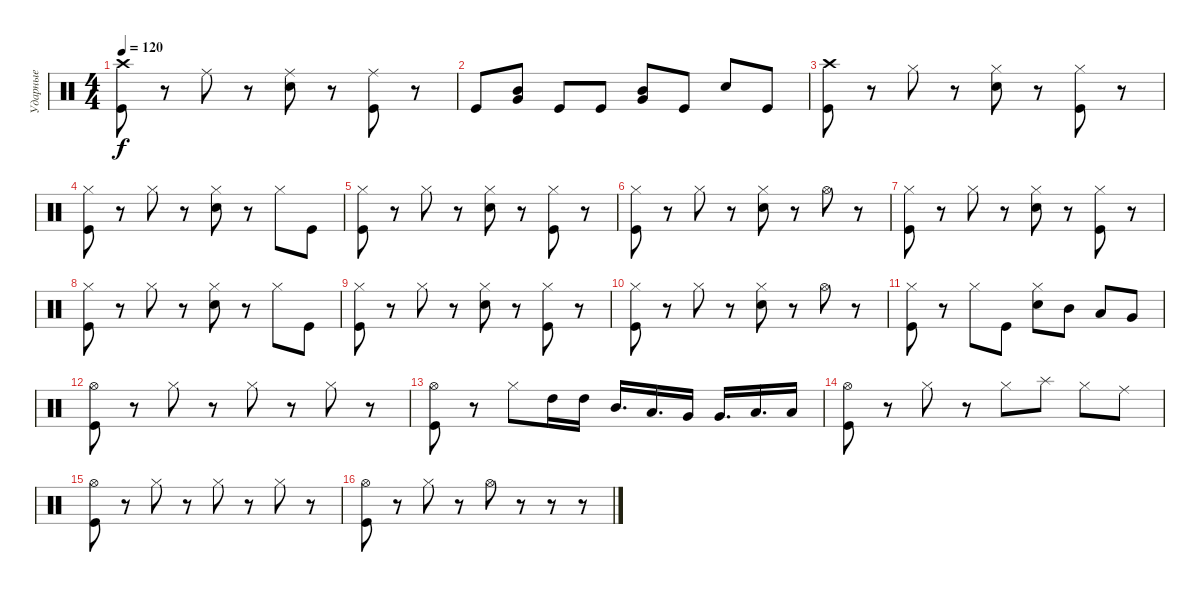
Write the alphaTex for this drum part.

\track ("Ударные" "Ударные") {instrument percussion}
\staff {score}
\articulation defaults
\ts (4 4)
\tempo 120
\clef neutral
\ks c
("Crash high (hit)" "Kick (hit)").8{dy f} r.8 "Ride (middle)".8 r.8 ("Ride (middle)" "Snare (hit) 2").8 r.8 ("Ride (middle)" "Kick (hit)").8 r.8 |
"Kick (hit)".8 ("Mid Tom (hit)" "Very Low Tom (hit)").8 "Kick (hit)".8 "Kick (hit)".8 ("Mid Tom (hit)" "Very Low Tom (hit)").8 "Kick (hit)".8 "Snare (hit) 2".8 "Kick (hit)".8 |
("Crash high (hit)" "Kick (hit)").8 r.8 "Hi-Hat (closed)".8 r.8 ("Hi-Hat (closed)" "Snare (hit) 2").8 r.8 ("Hi-Hat (closed)" "Kick (hit)").8 r.8 |
("Hi-Hat (closed)" "Kick (hit)").8 r.8 "Hi-Hat (closed)".8 r.8 ("Hi-Hat (closed)" "Snare (hit) 2").8 r.8 "Hi-Hat (closed)".8 "Kick (hit)".8 |
("Hi-Hat (closed)" "Kick (hit)").8 r.8 "Hi-Hat (closed)".8 r.8 ("Hi-Hat (closed)" "Snare (hit) 2").8 r.8 ("Hi-Hat (closed)" "Kick (hit)").8 r.8 |
("Hi-Hat (closed)" "Kick (hit)").8 r.8 "Hi-Hat (closed)".8 r.8 ("Hi-Hat (closed)" "Snare (hit) 2").8 r.8 "Hi-Hat (open)".8 r.8 |
("Hi-Hat (closed)" "Kick (hit)").8 r.8 "Hi-Hat (closed)".8 r.8 ("Hi-Hat (closed)" "Snare (hit) 2").8 r.8 ("Hi-Hat (closed)" "Kick (hit)").8 r.8 |
("Hi-Hat (closed)" "Kick (hit)").8 r.8 "Hi-Hat (closed)".8 r.8 ("Hi-Hat (closed)" "Snare (hit) 2").8 r.8 "Hi-Hat (closed)".8 "Kick (hit)".8 |
("Hi-Hat (closed)" "Kick (hit)").8 r.8 "Hi-Hat (closed)".8 r.8 ("Hi-Hat (closed)" "Snare (hit) 2").8 r.8 ("Hi-Hat (closed)" "Kick (hit)").8 r.8 |
("Hi-Hat (closed)" "Kick (hit)").8 r.8 "Hi-Hat (closed)".8 r.8 ("Hi-Hat (closed)" "Snare (hit) 2").8 r.8 "Hi-Hat (open)".8 r.8 |
("Hi-Hat (closed)" "Kick (hit)").8 r.8 "Hi-Hat (closed)".8 "Kick (hit)".8 ("Hi-Hat (closed)" "Snare (hit) 2").8 "Mid Tom (hit)".8 "Low Tom (hit)".8 "Very Low Tom (hit)".8 |
("Hi-Hat (open)" "Kick (hit)").8 r.8 "Hi-Hat (closed)".8 r.8 "Hi-Hat (closed)".8 r.8 "Hi-Hat (closed)".8 r.8 |
("Hi-Hat (open)" "Kick (hit)").8 r.8 "Hi-Hat (closed)".8 "High Tom (hit)".16 "High Tom (hit)".16 "Mid Tom (hit)".16{d} "Low Tom (hit)".16{d} "Very Low Tom (hit)".16 "Very Low Tom (hit)".16{d} "Low Floor Tom (hit)".16{d} "Low Floor Tom (hit)".16 |
("Hi-Hat (open)" "Kick (hit)").8 r.8 "Hi-Hat (closed)".8 r.8 "Hi-Hat (closed)".8 "Splash (hit)".8 "Hi-Hat (closed)".8 "Ride (middle)".8 |
("Hi-Hat (open)" "Kick (hit)").8 r.8 "Hi-Hat (closed)".8 r.8 "Hi-Hat (closed)".8 r.8 "Hi-Hat (closed)".8 r.8 |
("Hi-Hat (open)" "Kick (hit)").8 r.8 "Hi-Hat (closed)".8 r.8 "Hi-Hat (open)".8 r.8 r.8 r.8
